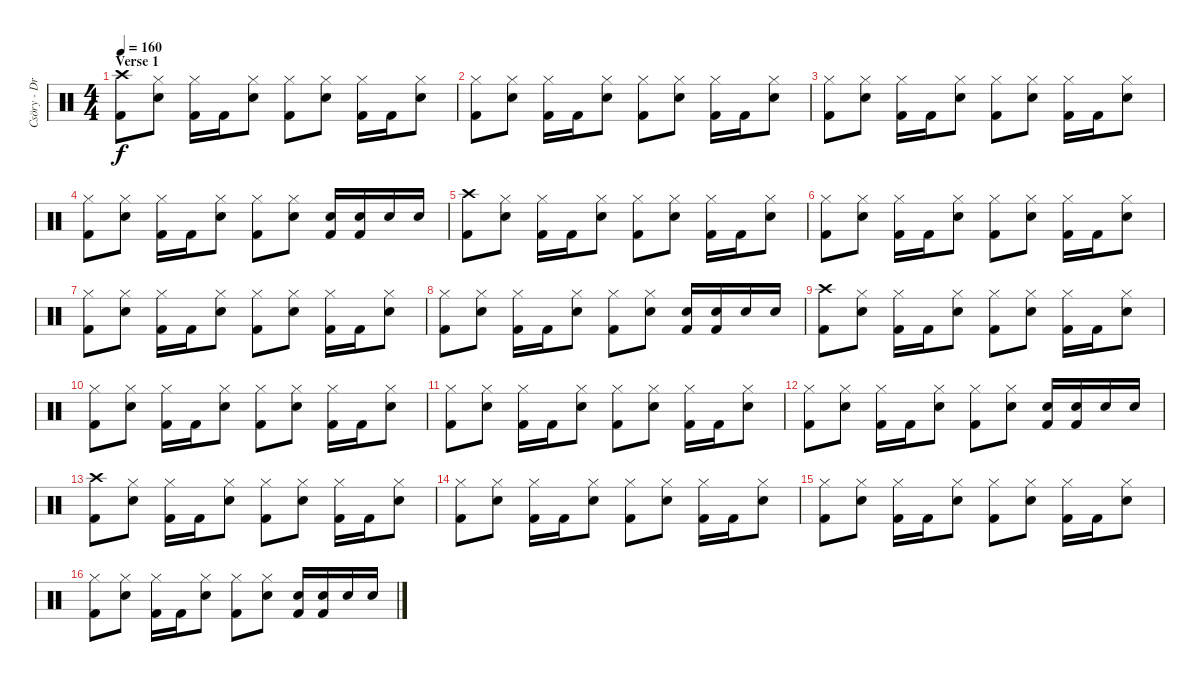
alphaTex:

\track ("Csöry - DrumZ" "Csöry - Dr") {instrument percussion}
\staff {score}
\articulation defaults
\ts (4 4)
\section ("" "Verse 1")
\tempo 160
\clef neutral
\ks c
("Crash high (hit)" "Kick (hit) 2").8{dy f} ("Hi-Hat (closed)" "Snare (hit) 2").8 ("Hi-Hat (closed)" "Kick (hit) 2").16 "Kick (hit) 2".16 ("Hi-Hat (closed)" "Snare (hit) 2").8 ("Hi-Hat (closed)" "Kick (hit) 2").8 ("Hi-Hat (closed)" "Snare (hit) 2").8 ("Hi-Hat (closed)" "Kick (hit) 2").16 "Kick (hit) 2".16 ("Hi-Hat (closed)" "Snare (hit) 2").8 |
("Hi-Hat (closed)" "Kick (hit) 2").8 ("Hi-Hat (closed)" "Snare (hit) 2").8 ("Hi-Hat (closed)" "Kick (hit) 2").16 "Kick (hit) 2".16 ("Hi-Hat (closed)" "Snare (hit) 2").8 ("Hi-Hat (closed)" "Kick (hit) 2").8 ("Hi-Hat (closed)" "Snare (hit) 2").8 ("Hi-Hat (closed)" "Kick (hit) 2").16 "Kick (hit) 2".16 ("Hi-Hat (closed)" "Snare (hit) 2").8 |
("Hi-Hat (closed)" "Kick (hit) 2").8 ("Hi-Hat (closed)" "Snare (hit) 2").8 ("Hi-Hat (closed)" "Kick (hit) 2").16 "Kick (hit) 2".16 ("Hi-Hat (closed)" "Snare (hit) 2").8 ("Hi-Hat (closed)" "Kick (hit) 2").8 ("Hi-Hat (closed)" "Snare (hit) 2").8 ("Hi-Hat (closed)" "Kick (hit) 2").16 "Kick (hit) 2".16 ("Hi-Hat (closed)" "Snare (hit) 2").8 |
("Hi-Hat (closed)" "Kick (hit) 2").8 ("Hi-Hat (closed)" "Snare (hit) 2").8 ("Hi-Hat (closed)" "Kick (hit) 2").16 "Kick (hit) 2".16 ("Hi-Hat (closed)" "Snare (hit) 2").8 ("Hi-Hat (closed)" "Kick (hit) 2").8 ("Hi-Hat (closed)" "Snare (hit) 2").8 ("Snare (hit) 2" "Kick (hit) 2").16 ("Snare (hit) 2" "Kick (hit) 2").16 "Snare (hit) 2".16 "Snare (hit) 2".16 |
("Crash high (hit)" "Kick (hit) 2").8 ("Hi-Hat (closed)" "Snare (hit) 2").8 ("Hi-Hat (closed)" "Kick (hit) 2").16 "Kick (hit) 2".16 ("Hi-Hat (closed)" "Snare (hit) 2").8 ("Hi-Hat (closed)" "Kick (hit) 2").8 ("Hi-Hat (closed)" "Snare (hit) 2").8 ("Hi-Hat (closed)" "Kick (hit) 2").16 "Kick (hit) 2".16 ("Hi-Hat (closed)" "Snare (hit) 2").8 |
("Hi-Hat (closed)" "Kick (hit) 2").8 ("Hi-Hat (closed)" "Snare (hit) 2").8 ("Hi-Hat (closed)" "Kick (hit) 2").16 "Kick (hit) 2".16 ("Hi-Hat (closed)" "Snare (hit) 2").8 ("Hi-Hat (closed)" "Kick (hit) 2").8 ("Hi-Hat (closed)" "Snare (hit) 2").8 ("Hi-Hat (closed)" "Kick (hit) 2").16 "Kick (hit) 2".16 ("Hi-Hat (closed)" "Snare (hit) 2").8 |
("Hi-Hat (closed)" "Kick (hit) 2").8 ("Hi-Hat (closed)" "Snare (hit) 2").8 ("Hi-Hat (closed)" "Kick (hit) 2").16 "Kick (hit) 2".16 ("Hi-Hat (closed)" "Snare (hit) 2").8 ("Hi-Hat (closed)" "Kick (hit) 2").8 ("Hi-Hat (closed)" "Snare (hit) 2").8 ("Hi-Hat (closed)" "Kick (hit) 2").16 "Kick (hit) 2".16 ("Hi-Hat (closed)" "Snare (hit) 2").8 |
("Hi-Hat (closed)" "Kick (hit) 2").8 ("Hi-Hat (closed)" "Snare (hit) 2").8 ("Hi-Hat (closed)" "Kick (hit) 2").16 "Kick (hit) 2".16 ("Hi-Hat (closed)" "Snare (hit) 2").8 ("Hi-Hat (closed)" "Kick (hit) 2").8 ("Hi-Hat (closed)" "Snare (hit) 2").8 ("Snare (hit) 2" "Kick (hit) 2").16 ("Snare (hit) 2" "Kick (hit) 2").16 "Snare (hit) 2".16 "Snare (hit) 2".16 |
("Crash high (hit)" "Kick (hit) 2").8 ("Hi-Hat (closed)" "Snare (hit) 2").8 ("Hi-Hat (closed)" "Kick (hit) 2").16 "Kick (hit) 2".16 ("Hi-Hat (closed)" "Snare (hit) 2").8 ("Hi-Hat (closed)" "Kick (hit) 2").8 ("Hi-Hat (closed)" "Snare (hit) 2").8 ("Hi-Hat (closed)" "Kick (hit) 2").16 "Kick (hit) 2".16 ("Hi-Hat (closed)" "Snare (hit) 2").8 |
("Hi-Hat (closed)" "Kick (hit) 2").8 ("Hi-Hat (closed)" "Snare (hit) 2").8 ("Hi-Hat (closed)" "Kick (hit) 2").16 "Kick (hit) 2".16 ("Hi-Hat (closed)" "Snare (hit) 2").8 ("Hi-Hat (closed)" "Kick (hit) 2").8 ("Hi-Hat (closed)" "Snare (hit) 2").8 ("Hi-Hat (closed)" "Kick (hit) 2").16 "Kick (hit) 2".16 ("Hi-Hat (closed)" "Snare (hit) 2").8 |
("Hi-Hat (closed)" "Kick (hit) 2").8 ("Hi-Hat (closed)" "Snare (hit) 2").8 ("Hi-Hat (closed)" "Kick (hit) 2").16 "Kick (hit) 2".16 ("Hi-Hat (closed)" "Snare (hit) 2").8 ("Hi-Hat (closed)" "Kick (hit) 2").8 ("Hi-Hat (closed)" "Snare (hit) 2").8 ("Hi-Hat (closed)" "Kick (hit) 2").16 "Kick (hit) 2".16 ("Hi-Hat (closed)" "Snare (hit) 2").8 |
("Hi-Hat (closed)" "Kick (hit) 2").8 ("Hi-Hat (closed)" "Snare (hit) 2").8 ("Hi-Hat (closed)" "Kick (hit) 2").16 "Kick (hit) 2".16 ("Hi-Hat (closed)" "Snare (hit) 2").8 ("Hi-Hat (closed)" "Kick (hit) 2").8 ("Hi-Hat (closed)" "Snare (hit) 2").8 ("Snare (hit) 2" "Kick (hit) 2").16 ("Snare (hit) 2" "Kick (hit) 2").16 "Snare (hit) 2".16 "Snare (hit) 2".16 |
("Crash high (hit)" "Kick (hit) 2").8 ("Hi-Hat (closed)" "Snare (hit) 2").8 ("Hi-Hat (closed)" "Kick (hit) 2").16 "Kick (hit) 2".16 ("Hi-Hat (closed)" "Snare (hit) 2").8 ("Hi-Hat (closed)" "Kick (hit) 2").8 ("Hi-Hat (closed)" "Snare (hit) 2").8 ("Hi-Hat (closed)" "Kick (hit) 2").16 "Kick (hit) 2".16 ("Hi-Hat (closed)" "Snare (hit) 2").8 |
("Hi-Hat (closed)" "Kick (hit) 2").8 ("Hi-Hat (closed)" "Snare (hit) 2").8 ("Hi-Hat (closed)" "Kick (hit) 2").16 "Kick (hit) 2".16 ("Hi-Hat (closed)" "Snare (hit) 2").8 ("Hi-Hat (closed)" "Kick (hit) 2").8 ("Hi-Hat (closed)" "Snare (hit) 2").8 ("Hi-Hat (closed)" "Kick (hit) 2").16 "Kick (hit) 2".16 ("Hi-Hat (closed)" "Snare (hit) 2").8 |
("Hi-Hat (closed)" "Kick (hit) 2").8 ("Hi-Hat (closed)" "Snare (hit) 2").8 ("Hi-Hat (closed)" "Kick (hit) 2").16 "Kick (hit) 2".16 ("Hi-Hat (closed)" "Snare (hit) 2").8 ("Hi-Hat (closed)" "Kick (hit) 2").8 ("Hi-Hat (closed)" "Snare (hit) 2").8 ("Hi-Hat (closed)" "Kick (hit) 2").16 "Kick (hit) 2".16 ("Hi-Hat (closed)" "Snare (hit) 2").8 |
("Hi-Hat (closed)" "Kick (hit) 2").8 ("Hi-Hat (closed)" "Snare (hit) 2").8 ("Hi-Hat (closed)" "Kick (hit) 2").16 "Kick (hit) 2".16 ("Hi-Hat (closed)" "Snare (hit) 2").8 ("Hi-Hat (closed)" "Kick (hit) 2").8 ("Hi-Hat (closed)" "Snare (hit) 2").8 ("Snare (hit) 2" "Kick (hit) 2").16 ("Snare (hit) 2" "Kick (hit) 2").16 "Snare (hit) 2".16 "Snare (hit) 2".16
